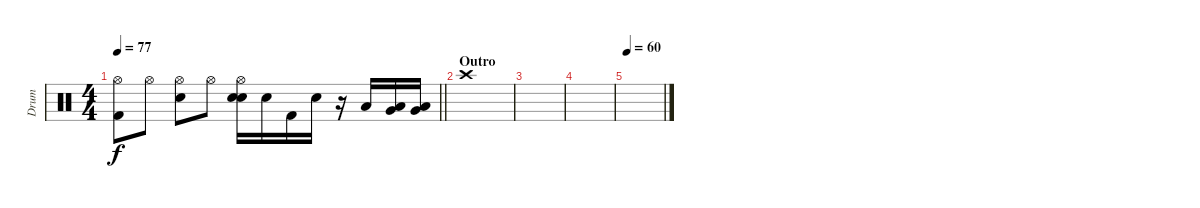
\track ("Drum" "Drum") {instrument percussion}
\staff {score}
\articulation defaults
\ts (4 4)
\tempo 77
\clef neutral
\barLineRight lightlight
\ks c
("Hi-Hat (open)" "Kick (hit) 2").8{dy f} "Hi-Hat (open)".8 ("Hi-Hat (open)" "Snare (hit) 2").8 "Hi-Hat (open)".8 ("Hi-Hat (open)" "Snare (hit) 2" "Snare (hit) 2").16 "Snare (hit) 2".16 "Kick (hit) 2".16 "Snare (hit) 2".16 r.16 "Low Floor Tom (hit)".16 ("Very Low Tom (hit)" "Low Tom (hit)").16 ("Very Low Tom (hit)" "Low Tom (hit)").16 |
\section ("" "Outro")
"Crash high (hit)".1 |
|
|
\tempo 60
